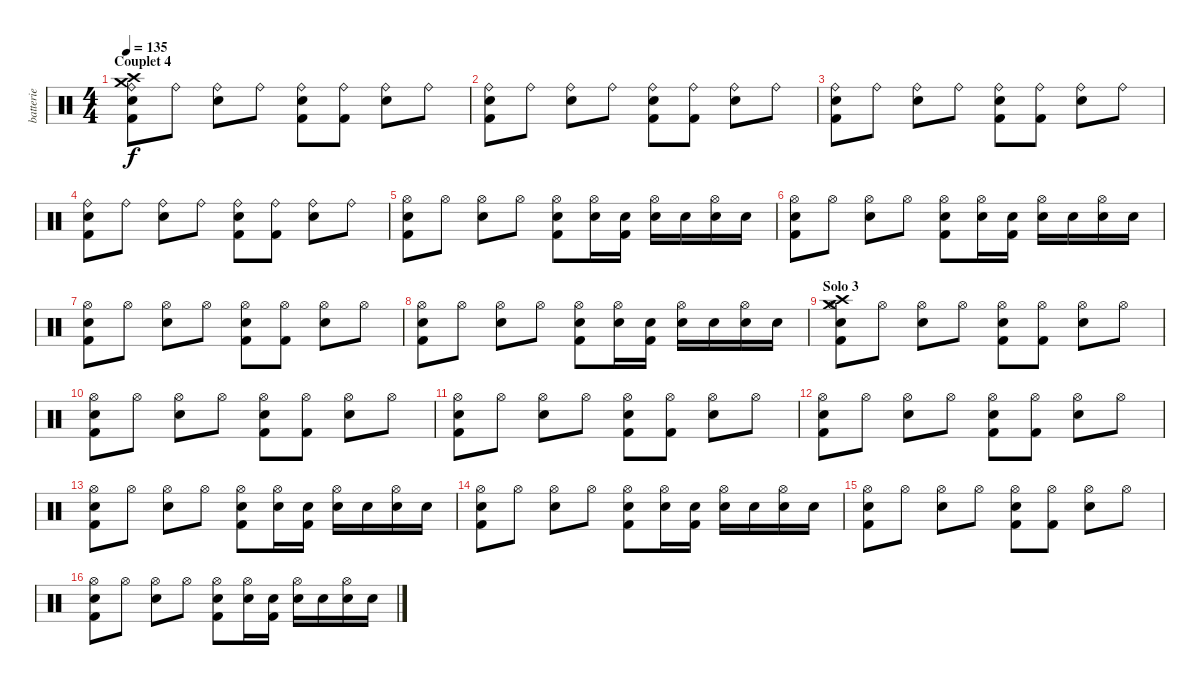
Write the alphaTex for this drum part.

\track ("batterie" "batterie") {instrument percussion}
\staff {score}
\articulation defaults
\ts (4 4)
\section ("" "Couplet 4")
\tempo 135
\clef neutral
\ks c
("Kick (hit) 2" "Crash medium (hit)" "Electric Snare (hit)" "Crash high (hit)" "Ride (bell)").8{dy f} "Ride (bell)".8 ("Electric Snare (hit)" "Ride (bell)").8 "Ride (bell)".8 ("Kick (hit) 2" "Electric Snare (hit)" "Ride (bell)").8 ("Kick (hit) 2" "Ride (bell)").8 ("Electric Snare (hit)" "Ride (bell)").8 "Ride (bell)".8 |
("Kick (hit) 2" "Electric Snare (hit)" "Ride (bell)").8 "Ride (bell)".8 ("Electric Snare (hit)" "Ride (bell)").8 "Ride (bell)".8 ("Kick (hit) 2" "Electric Snare (hit)" "Ride (bell)").8 ("Kick (hit) 2" "Ride (bell)").8 ("Electric Snare (hit)" "Ride (bell)").8 "Ride (bell)".8 |
("Kick (hit) 2" "Electric Snare (hit)" "Ride (bell)").8 "Ride (bell)".8 ("Electric Snare (hit)" "Ride (bell)").8 "Ride (bell)".8 ("Kick (hit) 2" "Electric Snare (hit)" "Ride (bell)").8 ("Kick (hit) 2" "Ride (bell)").8 ("Electric Snare (hit)" "Ride (bell)").8 "Ride (bell)".8 |
("Kick (hit) 2" "Electric Snare (hit)" "Ride (bell)").8 "Ride (bell)".8 ("Electric Snare (hit)" "Ride (bell)").8 "Ride (bell)".8 ("Kick (hit) 2" "Electric Snare (hit)" "Ride (bell)").8 ("Kick (hit) 2" "Ride (bell)").8 ("Electric Snare (hit)" "Ride (bell)").8 "Ride (bell)".8 |
("Kick (hit) 2" "Electric Snare (hit)" "Hi-Hat (open)").8 "Hi-Hat (open)".8 ("Electric Snare (hit)" "Hi-Hat (open)").8 "Hi-Hat (open)".8 ("Kick (hit) 2" "Electric Snare (hit)" "Hi-Hat (open)").8 ("Electric Snare (hit)" "Hi-Hat (open)").16 ("Kick (hit) 2" "Electric Snare (hit)").16 ("Electric Snare (hit)" "Hi-Hat (open)").16 "Electric Snare (hit)".16 ("Electric Snare (hit)" "Hi-Hat (open)").16 "Electric Snare (hit)".16 |
("Kick (hit) 2" "Electric Snare (hit)" "Hi-Hat (open)").8 "Hi-Hat (open)".8 ("Electric Snare (hit)" "Hi-Hat (open)").8 "Hi-Hat (open)".8 ("Kick (hit) 2" "Electric Snare (hit)" "Hi-Hat (open)").8 ("Electric Snare (hit)" "Hi-Hat (open)").16 ("Kick (hit) 2" "Electric Snare (hit)").16 ("Electric Snare (hit)" "Hi-Hat (open)").16 "Electric Snare (hit)".16 ("Electric Snare (hit)" "Hi-Hat (open)").16 "Electric Snare (hit)".16 |
("Kick (hit) 2" "Electric Snare (hit)" "Hi-Hat (open)").8 "Hi-Hat (open)".8 ("Electric Snare (hit)" "Hi-Hat (open)").8 "Hi-Hat (open)".8 ("Kick (hit) 2" "Electric Snare (hit)" "Hi-Hat (open)").8 ("Kick (hit) 2" "Hi-Hat (open)").8 ("Electric Snare (hit)" "Hi-Hat (open)").8 "Hi-Hat (open)".8 |
("Kick (hit) 2" "Electric Snare (hit)" "Hi-Hat (open)").8 "Hi-Hat (open)".8 ("Electric Snare (hit)" "Hi-Hat (open)").8 "Hi-Hat (open)".8 ("Kick (hit) 2" "Electric Snare (hit)" "Hi-Hat (open)").8 ("Electric Snare (hit)" "Hi-Hat (open)").16 ("Kick (hit) 2" "Electric Snare (hit)").16 ("Electric Snare (hit)" "Hi-Hat (open)").16 "Electric Snare (hit)".16 ("Electric Snare (hit)" "Hi-Hat (open)").16 "Electric Snare (hit)".16 |
\section ("" "Solo 3")
("Kick (hit) 2" "Crash medium (hit)" "Electric Snare (hit)" "Crash high (hit)" "Hi-Hat (open)").8 "Hi-Hat (open)".8 ("Electric Snare (hit)" "Hi-Hat (open)").8 "Hi-Hat (open)".8 ("Kick (hit) 2" "Electric Snare (hit)" "Hi-Hat (open)").8 ("Kick (hit) 2" "Hi-Hat (open)").8 ("Electric Snare (hit)" "Hi-Hat (open)").8 "Hi-Hat (open)".8 |
("Kick (hit) 2" "Electric Snare (hit)" "Hi-Hat (open)").8 "Hi-Hat (open)".8 ("Electric Snare (hit)" "Hi-Hat (open)").8 "Hi-Hat (open)".8 ("Kick (hit) 2" "Electric Snare (hit)" "Hi-Hat (open)").8 ("Kick (hit) 2" "Hi-Hat (open)").8 ("Electric Snare (hit)" "Hi-Hat (open)").8 "Hi-Hat (open)".8 |
("Kick (hit) 2" "Electric Snare (hit)" "Hi-Hat (open)").8 "Hi-Hat (open)".8 ("Electric Snare (hit)" "Hi-Hat (open)").8 "Hi-Hat (open)".8 ("Kick (hit) 2" "Electric Snare (hit)" "Hi-Hat (open)").8 ("Kick (hit) 2" "Hi-Hat (open)").8 ("Electric Snare (hit)" "Hi-Hat (open)").8 "Hi-Hat (open)".8 |
("Kick (hit) 2" "Electric Snare (hit)" "Hi-Hat (open)").8 "Hi-Hat (open)".8 ("Electric Snare (hit)" "Hi-Hat (open)").8 "Hi-Hat (open)".8 ("Kick (hit) 2" "Electric Snare (hit)" "Hi-Hat (open)").8 ("Kick (hit) 2" "Hi-Hat (open)").8 ("Electric Snare (hit)" "Hi-Hat (open)").8 "Hi-Hat (open)".8 |
("Kick (hit) 2" "Electric Snare (hit)" "Hi-Hat (open)").8 "Hi-Hat (open)".8 ("Electric Snare (hit)" "Hi-Hat (open)").8 "Hi-Hat (open)".8 ("Kick (hit) 2" "Electric Snare (hit)" "Hi-Hat (open)").8 ("Electric Snare (hit)" "Hi-Hat (open)").16 ("Kick (hit) 2" "Electric Snare (hit)").16 ("Electric Snare (hit)" "Hi-Hat (open)").16 "Electric Snare (hit)".16 ("Electric Snare (hit)" "Hi-Hat (open)").16 "Electric Snare (hit)".16 |
("Kick (hit) 2" "Electric Snare (hit)" "Hi-Hat (open)").8 "Hi-Hat (open)".8 ("Electric Snare (hit)" "Hi-Hat (open)").8 "Hi-Hat (open)".8 ("Kick (hit) 2" "Electric Snare (hit)" "Hi-Hat (open)").8 ("Electric Snare (hit)" "Hi-Hat (open)").16 ("Kick (hit) 2" "Electric Snare (hit)").16 ("Electric Snare (hit)" "Hi-Hat (open)").16 "Electric Snare (hit)".16 ("Electric Snare (hit)" "Hi-Hat (open)").16 "Electric Snare (hit)".16 |
("Kick (hit) 2" "Electric Snare (hit)" "Hi-Hat (open)").8 "Hi-Hat (open)".8 ("Electric Snare (hit)" "Hi-Hat (open)").8 "Hi-Hat (open)".8 ("Kick (hit) 2" "Electric Snare (hit)" "Hi-Hat (open)").8 ("Kick (hit) 2" "Hi-Hat (open)").8 ("Electric Snare (hit)" "Hi-Hat (open)").8 "Hi-Hat (open)".8 |
("Kick (hit) 2" "Electric Snare (hit)" "Hi-Hat (open)").8 "Hi-Hat (open)".8 ("Electric Snare (hit)" "Hi-Hat (open)").8 "Hi-Hat (open)".8 ("Kick (hit) 2" "Electric Snare (hit)" "Hi-Hat (open)").8 ("Electric Snare (hit)" "Hi-Hat (open)").16 ("Kick (hit) 2" "Electric Snare (hit)").16 ("Electric Snare (hit)" "Hi-Hat (open)").16 "Electric Snare (hit)".16 ("Electric Snare (hit)" "Hi-Hat (open)").16 "Electric Snare (hit)".16
